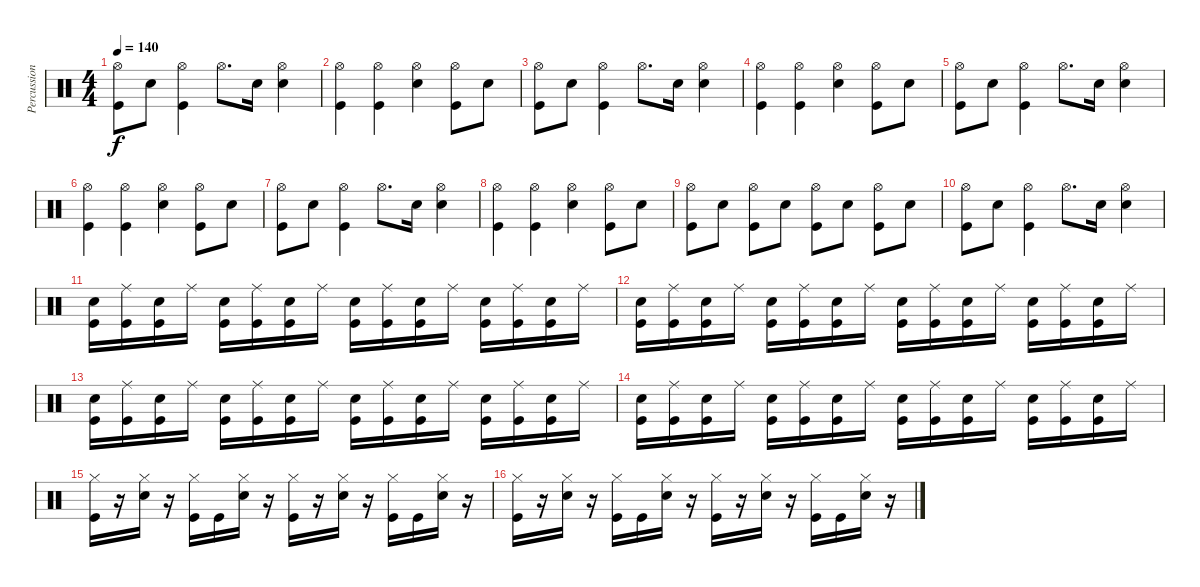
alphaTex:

\track ("Percussion" "Percussion") {instrument percussion}
\staff {score}
\articulation defaults
\ts (4 4)
\tempo 140
\clef neutral
\ks c
("Hi-Hat (open)" "Kick (hit)").8{dy f} "Snare (hit) 2".8 ("Hi-Hat (open)" "Kick (hit)").4 "Hi-Hat (open)".8{d} "Snare (hit) 2".16 ("Hi-Hat (open)" "Snare (hit) 2").4 |
("Hi-Hat (open)" "Kick (hit)").4 ("Hi-Hat (open)" "Kick (hit)").4 ("Hi-Hat (open)" "Snare (hit) 2").4 ("Hi-Hat (open)" "Kick (hit)").8 "Snare (hit) 2".8 |
("Hi-Hat (open)" "Kick (hit)").8 "Snare (hit) 2".8 ("Hi-Hat (open)" "Kick (hit)").4 "Hi-Hat (open)".8{d} "Snare (hit) 2".16 ("Hi-Hat (open)" "Snare (hit) 2").4 |
("Hi-Hat (open)" "Kick (hit)").4 ("Hi-Hat (open)" "Kick (hit)").4 ("Hi-Hat (open)" "Snare (hit) 2").4 ("Hi-Hat (open)" "Kick (hit)").8 "Snare (hit) 2".8 |
("Hi-Hat (open)" "Kick (hit)").8 "Snare (hit) 2".8 ("Hi-Hat (open)" "Kick (hit)").4 "Hi-Hat (open)".8{d} "Snare (hit) 2".16 ("Hi-Hat (open)" "Snare (hit) 2").4 |
("Hi-Hat (open)" "Kick (hit)").4 ("Hi-Hat (open)" "Kick (hit)").4 ("Hi-Hat (open)" "Snare (hit) 2").4 ("Hi-Hat (open)" "Kick (hit)").8 "Snare (hit) 2".8 |
("Hi-Hat (open)" "Kick (hit)").8 "Snare (hit) 2".8 ("Hi-Hat (open)" "Kick (hit)").4 "Hi-Hat (open)".8{d} "Snare (hit) 2".16 ("Hi-Hat (open)" "Snare (hit) 2").4 |
("Hi-Hat (open)" "Kick (hit)").4 ("Hi-Hat (open)" "Kick (hit)").4 ("Hi-Hat (open)" "Snare (hit) 2").4 ("Hi-Hat (open)" "Kick (hit)").8 "Snare (hit) 2".8 |
("Hi-Hat (open)" "Kick (hit)").8 "Snare (hit) 2".8 ("Hi-Hat (open)" "Kick (hit)").8 "Snare (hit) 2".8 ("Hi-Hat (open)" "Kick (hit)").8 "Snare (hit) 2".8 ("Hi-Hat (open)" "Kick (hit)").8 "Snare (hit) 2".8 |
("Hi-Hat (open)" "Kick (hit)").8 "Snare (hit) 2".8 ("Hi-Hat (open)" "Kick (hit)").4 "Hi-Hat (open)".8{d} "Snare (hit) 2".16 ("Hi-Hat (open)" "Snare (hit) 2").4 |
("Snare (hit) 2" "Kick (hit)").16 ("Ride (middle)" "Kick (hit)").16 ("Snare (hit) 2" "Kick (hit)").16 "Ride (middle)".16 ("Snare (hit) 2" "Kick (hit)").16 ("Ride (middle)" "Kick (hit)").16 ("Snare (hit) 2" "Kick (hit)").16 "Ride (middle)".16 ("Snare (hit) 2" "Kick (hit)").16 ("Ride (middle)" "Kick (hit)").16 ("Snare (hit) 2" "Kick (hit)").16 "Ride (middle)".16 ("Snare (hit) 2" "Kick (hit)").16 ("Ride (middle)" "Kick (hit)").16 ("Snare (hit) 2" "Kick (hit)").16 "Ride (middle)".16 |
("Snare (hit) 2" "Kick (hit)").16 ("Ride (middle)" "Kick (hit)").16 ("Snare (hit) 2" "Kick (hit)").16 "Ride (middle)".16 ("Snare (hit) 2" "Kick (hit)").16 ("Ride (middle)" "Kick (hit)").16 ("Snare (hit) 2" "Kick (hit)").16 "Ride (middle)".16 ("Snare (hit) 2" "Kick (hit)").16 ("Ride (middle)" "Kick (hit)").16 ("Snare (hit) 2" "Kick (hit)").16 "Ride (middle)".16 ("Snare (hit) 2" "Kick (hit)").16 ("Ride (middle)" "Kick (hit)").16 ("Snare (hit) 2" "Kick (hit)").16 "Ride (middle)".16 |
("Snare (hit) 2" "Kick (hit)").16 ("Ride (middle)" "Kick (hit)").16 ("Snare (hit) 2" "Kick (hit)").16 "Ride (middle)".16 ("Snare (hit) 2" "Kick (hit)").16 ("Ride (middle)" "Kick (hit)").16 ("Snare (hit) 2" "Kick (hit)").16 "Ride (middle)".16 ("Snare (hit) 2" "Kick (hit)").16 ("Ride (middle)" "Kick (hit)").16 ("Snare (hit) 2" "Kick (hit)").16 "Ride (middle)".16 ("Snare (hit) 2" "Kick (hit)").16 ("Ride (middle)" "Kick (hit)").16 ("Snare (hit) 2" "Kick (hit)").16 "Ride (middle)".16 |
("Snare (hit) 2" "Kick (hit)").16 ("Ride (middle)" "Kick (hit)").16 ("Snare (hit) 2" "Kick (hit)").16 "Ride (middle)".16 ("Snare (hit) 2" "Kick (hit)").16 ("Ride (middle)" "Kick (hit)").16 ("Snare (hit) 2" "Kick (hit)").16 "Ride (middle)".16 ("Snare (hit) 2" "Kick (hit)").16 ("Ride (middle)" "Kick (hit)").16 ("Snare (hit) 2" "Kick (hit)").16 "Ride (middle)".16 ("Snare (hit) 2" "Kick (hit)").16 ("Ride (middle)" "Kick (hit)").16 ("Snare (hit) 2" "Kick (hit)").16 "Ride (middle)".16 |
("Hi-Hat (closed)" "Kick (hit)").16 r.16 ("Hi-Hat (closed)" "Snare (hit) 2").16 r.16 ("Hi-Hat (closed)" "Kick (hit)").16 "Kick (hit)".16 ("Hi-Hat (closed)" "Snare (hit) 2").16 r.16 ("Hi-Hat (closed)" "Kick (hit)").16 r.16 ("Hi-Hat (closed)" "Snare (hit) 2").16 r.16 ("Hi-Hat (closed)" "Kick (hit)").16 "Kick (hit)".16 ("Hi-Hat (closed)" "Snare (hit) 2").16 r.16 |
("Hi-Hat (closed)" "Kick (hit)").16 r.16 ("Hi-Hat (closed)" "Snare (hit) 2").16 r.16 ("Hi-Hat (closed)" "Kick (hit)").16 "Kick (hit)".16 ("Hi-Hat (closed)" "Snare (hit) 2").16 r.16 ("Hi-Hat (closed)" "Kick (hit)").16 r.16 ("Hi-Hat (closed)" "Snare (hit) 2").16 r.16 ("Hi-Hat (closed)" "Kick (hit)").16 "Kick (hit)".16 ("Hi-Hat (closed)" "Snare (hit) 2").16 r.16
